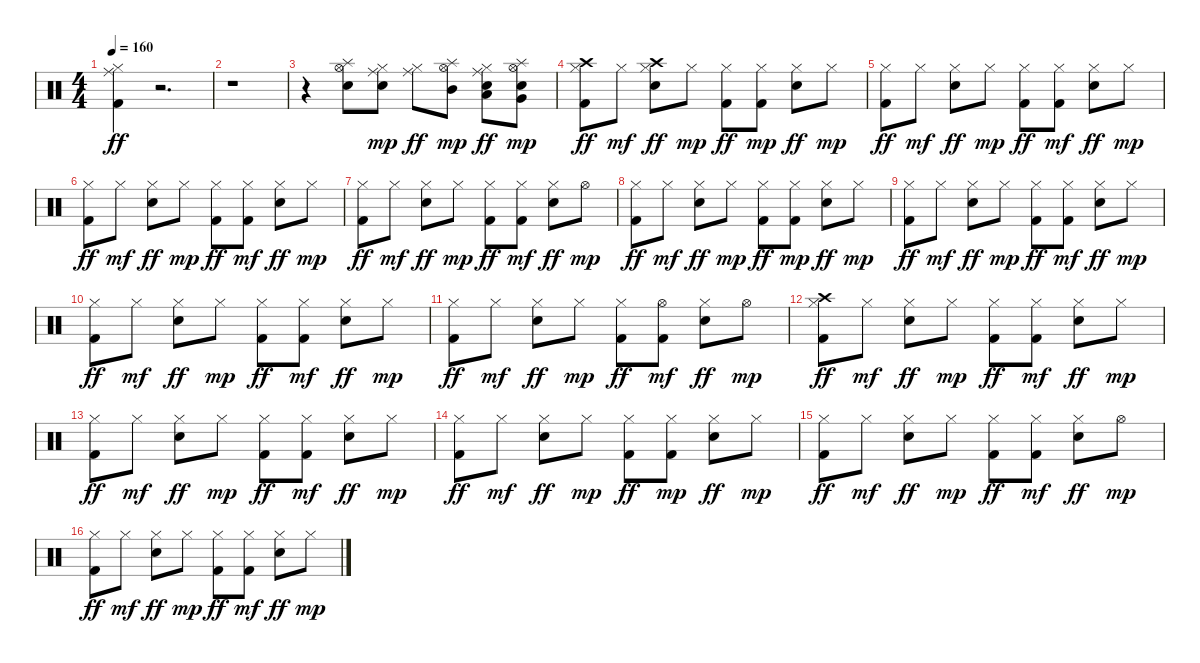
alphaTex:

\track "" {instrument percussion}
\staff {score}
\articulation defaults
\ts (4 4)
\tempo 160
\clef neutral
\ks c
("Kick (hit) 2" "Ride (middle)" "Hi-Hat (closed)").4{dy ff} r.2{d} |
r.1 |
r.4 ("Snare (hit) 2" "Hi-Hat (open)" "Splash (hit)").8 ("Hi-Hat (closed)" "Snare (hit) 2" "Ride (middle)").8{dy mp} ("Ride (middle)" "Hi-Hat (closed)").8{dy ff} ("Hi-Hat (open)" "Splash (hit)" "Mid Tom (hit)").8{dy mp} ("Ride (middle)" "Snare (hit) 2" "Low Tom (hit)" "Hi-Hat (closed)").8{dy ff} ("Splash (hit)" "Snare (hit) 2" "Very Low Tom (hit)" "Hi-Hat (open)").8{dy mp} |
("Hi-Hat (closed)" "Crash high (hit)" "Kick (hit) 2").8{dy ff} "Hi-Hat (closed)".8{dy mf} ("Crash high (hit)" "Snare (hit) 2" "Hi-Hat (closed)").8{dy ff} "Hi-Hat (closed)".8{dy mp} ("Hi-Hat (closed)" "Kick (hit) 2").8{dy ff} ("Kick (hit) 2" "Hi-Hat (closed)").8{dy mp} ("Snare (hit) 2" "Hi-Hat (closed)").8{dy ff} "Hi-Hat (closed)".8{dy mp} |
("Hi-Hat (closed)" "Kick (hit) 2").8{dy ff} "Hi-Hat (closed)".8{dy mf} ("Snare (hit) 2" "Hi-Hat (closed)").8{dy ff} "Hi-Hat (closed)".8{dy mp} ("Hi-Hat (closed)" "Kick (hit) 2").8{dy ff} ("Hi-Hat (closed)" "Kick (hit) 2").8{dy mf} ("Snare (hit) 2" "Hi-Hat (closed)").8{dy ff} "Hi-Hat (closed)".8{dy mp} |
("Kick (hit) 2" "Hi-Hat (closed)").8{dy ff} "Hi-Hat (closed)".8{dy mf} ("Hi-Hat (closed)" "Snare (hit) 2").8{dy ff} "Hi-Hat (closed)".8{dy mp} ("Kick (hit) 2" "Hi-Hat (closed)").8{dy ff} ("Hi-Hat (closed)" "Kick (hit) 2").8{dy mf} ("Snare (hit) 2" "Hi-Hat (closed)").8{dy ff} "Hi-Hat (closed)".8{dy mp} |
("Hi-Hat (closed)" "Kick (hit) 2").8{dy ff} "Hi-Hat (closed)".8{dy mf} ("Snare (hit) 2" "Hi-Hat (closed)").8{dy ff} "Hi-Hat (closed)".8{dy mp} ("Hi-Hat (closed)" "Kick (hit) 2").8{dy ff} ("Hi-Hat (closed)" "Kick (hit) 2").8{dy mf} ("Hi-Hat (closed)" "Snare (hit) 2").8{dy ff} "Hi-Hat (open)".8{dy mp} |
("Hi-Hat (closed)" "Kick (hit) 2").8{dy ff} "Hi-Hat (closed)".8{dy mf} ("Hi-Hat (closed)" "Snare (hit) 2").8{dy ff} "Hi-Hat (closed)".8{dy mp} ("Kick (hit) 2" "Hi-Hat (closed)").8{dy ff} ("Kick (hit) 2" "Hi-Hat (closed)").8{dy mp} ("Hi-Hat (closed)" "Snare (hit) 2").8{dy ff} "Hi-Hat (closed)".8{dy mp} |
("Hi-Hat (closed)" "Kick (hit) 2").8{dy ff} "Hi-Hat (closed)".8{dy mf} ("Snare (hit) 2" "Hi-Hat (closed)").8{dy ff} "Hi-Hat (closed)".8{dy mp} ("Hi-Hat (closed)" "Kick (hit) 2").8{dy ff} ("Hi-Hat (closed)" "Kick (hit) 2").8{dy mf} ("Hi-Hat (closed)" "Snare (hit) 2").8{dy ff} "Hi-Hat (closed)".8{dy mp} |
("Kick (hit) 2" "Hi-Hat (closed)").8{dy ff} "Hi-Hat (closed)".8{dy mf} ("Hi-Hat (closed)" "Snare (hit) 2").8{dy ff} "Hi-Hat (closed)".8{dy mp} ("Hi-Hat (closed)" "Kick (hit) 2").8{dy ff} ("Hi-Hat (closed)" "Kick (hit) 2").8{dy mf} ("Snare (hit) 2" "Hi-Hat (closed)").8{dy ff} "Hi-Hat (closed)".8{dy mp} |
("Hi-Hat (closed)" "Kick (hit) 2").8{dy ff} "Hi-Hat (closed)".8{dy mf} ("Snare (hit) 2" "Hi-Hat (closed)").8{dy ff} "Hi-Hat (closed)".8{dy mp} ("Hi-Hat (closed)" "Kick (hit) 2").8{dy ff} ("Hi-Hat (open)" "Kick (hit) 2").8{dy mf} ("Snare (hit) 2" "Hi-Hat (closed)").8{dy ff} "Hi-Hat (open)".8{dy mp} |
("Crash high (hit)" "Hi-Hat (closed)" "Kick (hit) 2").8{dy ff} "Hi-Hat (closed)".8{dy mf} ("Hi-Hat (closed)" "Snare (hit) 2").8{dy ff} "Hi-Hat (closed)".8{dy mp} ("Hi-Hat (closed)" "Kick (hit) 2").8{dy ff} ("Hi-Hat (closed)" "Kick (hit) 2").8{dy mf} ("Hi-Hat (closed)" "Snare (hit) 2").8{dy ff} "Hi-Hat (closed)".8{dy mp} |
("Hi-Hat (closed)" "Kick (hit) 2").8{dy ff} "Hi-Hat (closed)".8{dy mf} ("Snare (hit) 2" "Hi-Hat (closed)").8{dy ff} "Hi-Hat (closed)".8{dy mp} ("Hi-Hat (closed)" "Kick (hit) 2").8{dy ff} ("Hi-Hat (closed)" "Kick (hit) 2").8{dy mf} ("Hi-Hat (closed)" "Snare (hit) 2").8{dy ff} "Hi-Hat (closed)".8{dy mp} |
("Kick (hit) 2" "Hi-Hat (closed)").8{dy ff} "Hi-Hat (closed)".8{dy mf} ("Snare (hit) 2" "Hi-Hat (closed)").8{dy ff} "Hi-Hat (closed)".8{dy mp} ("Kick (hit) 2" "Hi-Hat (closed)").8{dy ff} ("Kick (hit) 2" "Hi-Hat (closed)").8{dy mp} ("Snare (hit) 2" "Hi-Hat (closed)").8{dy ff} "Hi-Hat (closed)".8{dy mp} |
("Hi-Hat (closed)" "Kick (hit) 2").8{dy ff} "Hi-Hat (closed)".8{dy mf} ("Snare (hit) 2" "Hi-Hat (closed)").8{dy ff} "Hi-Hat (closed)".8{dy mp} ("Hi-Hat (closed)" "Kick (hit) 2").8{dy ff} ("Hi-Hat (closed)" "Kick (hit) 2").8{dy mf} ("Snare (hit) 2" "Hi-Hat (closed)").8{dy ff} "Hi-Hat (open)".8{dy mp} |
("Hi-Hat (closed)" "Kick (hit) 2").8{dy ff} "Hi-Hat (closed)".8{dy mf} ("Hi-Hat (closed)" "Snare (hit) 2").8{dy ff} "Hi-Hat (closed)".8{dy mp} ("Kick (hit) 2" "Hi-Hat (closed)").8{dy ff} ("Hi-Hat (closed)" "Kick (hit) 2").8{dy mf} ("Snare (hit) 2" "Hi-Hat (closed)").8{dy ff} "Hi-Hat (closed)".8{dy mp}
